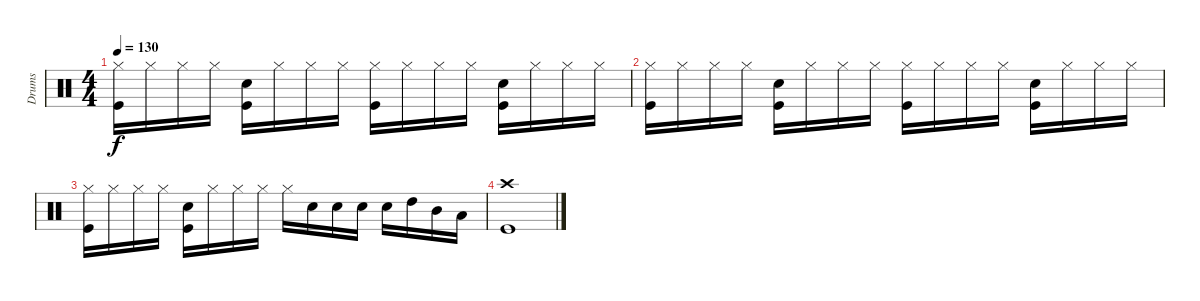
\track ("Drums" "Drums") {instrument percussion}
\staff {score}
\articulation defaults
\ts (4 4)
\tempo 130
\clef neutral
\ks c
("Hi-Hat (closed)" "Kick (hit)").16{dy f} "Hi-Hat (closed)".16 "Hi-Hat (closed)".16 "Hi-Hat (closed)".16 ("Snare (hit) 2" "Kick (hit)").16 "Hi-Hat (closed)".16 "Hi-Hat (closed)".16 "Hi-Hat (closed)".16 ("Hi-Hat (closed)" "Kick (hit)").16 "Hi-Hat (closed)".16 "Hi-Hat (closed)".16 "Hi-Hat (closed)".16 ("Snare (hit) 2" "Kick (hit)").16 "Hi-Hat (closed)".16 "Hi-Hat (closed)".16 "Hi-Hat (closed)".16 |
("Hi-Hat (closed)" "Kick (hit)").16 "Hi-Hat (closed)".16 "Hi-Hat (closed)".16 "Hi-Hat (closed)".16 ("Snare (hit) 2" "Kick (hit)").16 "Hi-Hat (closed)".16 "Hi-Hat (closed)".16 "Hi-Hat (closed)".16 ("Hi-Hat (closed)" "Kick (hit)").16 "Hi-Hat (closed)".16 "Hi-Hat (closed)".16 "Hi-Hat (closed)".16 ("Snare (hit) 2" "Kick (hit)").16 "Hi-Hat (closed)".16 "Hi-Hat (closed)".16 "Hi-Hat (closed)".16 |
("Hi-Hat (closed)" "Kick (hit)").16 "Hi-Hat (closed)".16 "Hi-Hat (closed)".16 "Hi-Hat (closed)".16 ("Snare (hit) 2" "Kick (hit)").16 "Hi-Hat (closed)".16 "Hi-Hat (closed)".16 "Hi-Hat (closed)".16 "Hi-Hat (closed)".16 "Snare (hit) 2".16 "Snare (hit) 2".16 "Snare (hit) 2".16 "Snare (hit) 2".16 "High Tom (hit)".16 "Mid Tom (hit)".16 "Low Tom (hit)".16 |
("Crash high (hit)" "Kick (hit)").1
